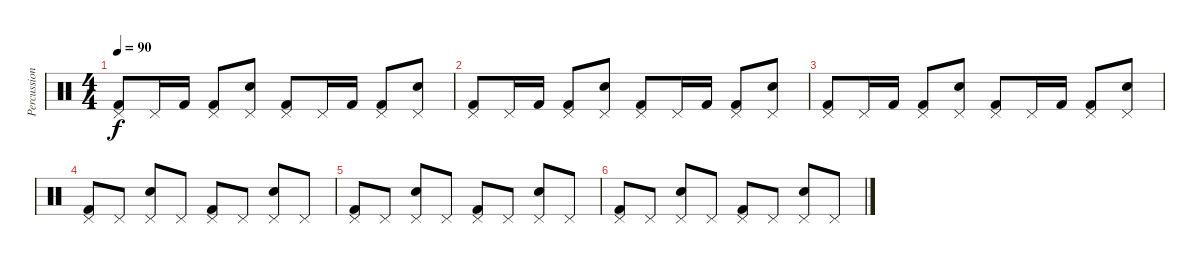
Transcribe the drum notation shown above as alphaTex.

\track ("Percussion" "Percussion") {instrument percussion}
\staff {score}
\articulation defaults
\ts (4 4)
\tempo 90
\clef neutral
\ks c
("Pedal Hi-Hat (hit)" "Kick (hit) 2").8{dy f} "Pedal Hi-Hat (hit)".16 "Kick (hit) 2".16 ("Pedal Hi-Hat (hit)" "Kick (hit) 2").8 ("Pedal Hi-Hat (hit)" "Snare (hit) 2").8 ("Pedal Hi-Hat (hit)" "Kick (hit) 2").8 "Pedal Hi-Hat (hit)".16 "Kick (hit) 2".16 ("Pedal Hi-Hat (hit)" "Kick (hit) 2").8 ("Pedal Hi-Hat (hit)" "Snare (hit) 2").8 |
("Pedal Hi-Hat (hit)" "Kick (hit) 2").8 "Pedal Hi-Hat (hit)".16 "Kick (hit) 2".16 ("Pedal Hi-Hat (hit)" "Kick (hit) 2").8 ("Pedal Hi-Hat (hit)" "Snare (hit) 2").8 ("Pedal Hi-Hat (hit)" "Kick (hit) 2").8 "Pedal Hi-Hat (hit)".16 "Kick (hit) 2".16 ("Pedal Hi-Hat (hit)" "Kick (hit) 2").8 ("Pedal Hi-Hat (hit)" "Snare (hit) 2").8 |
("Pedal Hi-Hat (hit)" "Kick (hit) 2").8 "Pedal Hi-Hat (hit)".16 "Kick (hit) 2".16 ("Pedal Hi-Hat (hit)" "Kick (hit) 2").8 ("Pedal Hi-Hat (hit)" "Snare (hit) 2").8 ("Pedal Hi-Hat (hit)" "Kick (hit) 2").8 "Pedal Hi-Hat (hit)".16 "Kick (hit) 2".16 ("Pedal Hi-Hat (hit)" "Kick (hit) 2").8 ("Pedal Hi-Hat (hit)" "Snare (hit) 2").8 |
("Pedal Hi-Hat (hit)" "Kick (hit) 2").8 "Pedal Hi-Hat (hit)".8 ("Pedal Hi-Hat (hit)" "Snare (hit) 2").8 "Pedal Hi-Hat (hit)".8 ("Pedal Hi-Hat (hit)" "Kick (hit) 2").8 "Pedal Hi-Hat (hit)".8 ("Pedal Hi-Hat (hit)" "Snare (hit) 2").8 "Pedal Hi-Hat (hit)".8 |
("Pedal Hi-Hat (hit)" "Kick (hit) 2").8 "Pedal Hi-Hat (hit)".8 ("Pedal Hi-Hat (hit)" "Snare (hit) 2").8 "Pedal Hi-Hat (hit)".8 ("Pedal Hi-Hat (hit)" "Kick (hit) 2").8 "Pedal Hi-Hat (hit)".8 ("Pedal Hi-Hat (hit)" "Snare (hit) 2").8 "Pedal Hi-Hat (hit)".8 |
("Pedal Hi-Hat (hit)" "Kick (hit) 2").8 "Pedal Hi-Hat (hit)".8 ("Pedal Hi-Hat (hit)" "Snare (hit) 2").8 "Pedal Hi-Hat (hit)".8 ("Pedal Hi-Hat (hit)" "Kick (hit) 2").8 "Pedal Hi-Hat (hit)".8 ("Pedal Hi-Hat (hit)" "Snare (hit) 2").8 "Pedal Hi-Hat (hit)".8
